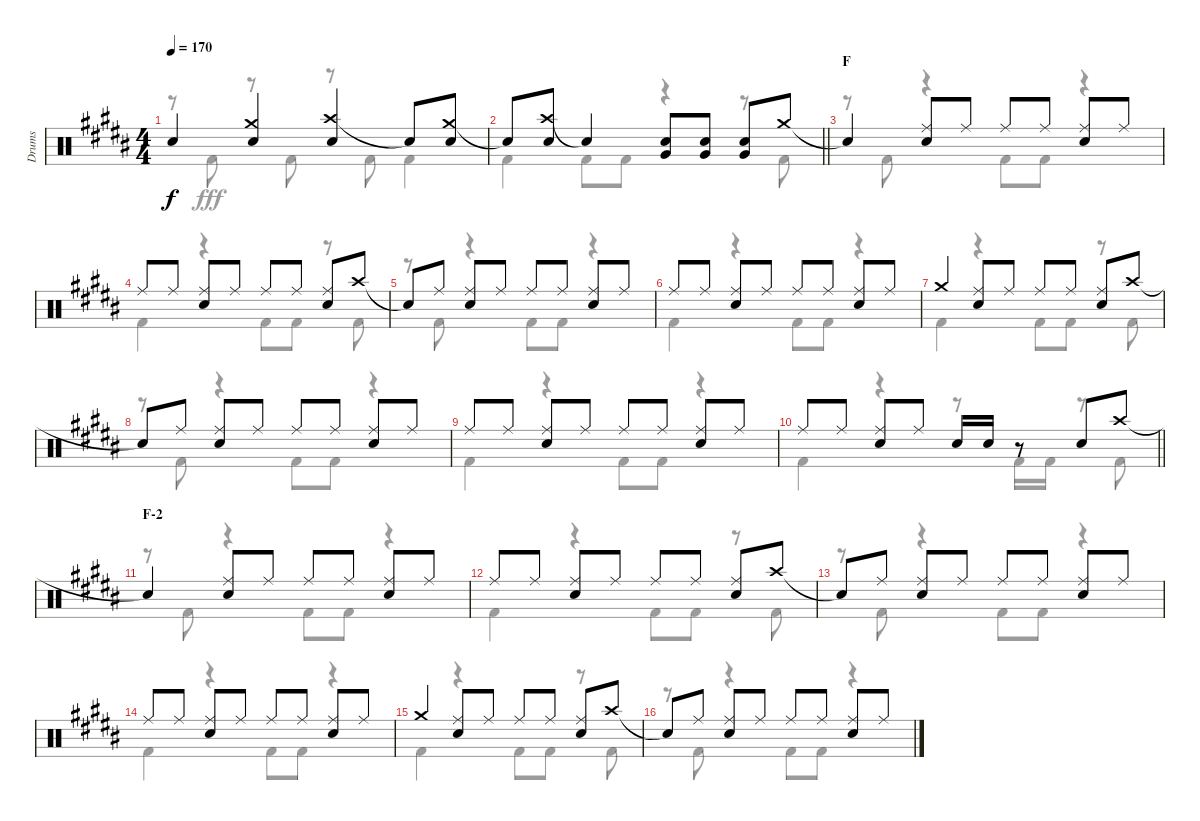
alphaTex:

\track ("Drums" "Drums") {instrument percussion}
\staff {score}
\articulation defaults
\voice
\ts (4 4)
\tempo 170
\clef neutral
\ks b "Snare (hit)"{t}.4{dy f}
("Crash medium (hit)" "Snare (hit) 2").4 ("Crash high (hit)" "Snare (hit) 2").4 "Snare (hit)"{t}.8 ("Crash medium (hit)" "Snare (hit) 2").8 |
\barLineRight lightlight "Snare (hit)"{t}.8
("Crash high (hit)" "Snare (hit) 2").8 "Snare (hit)"{t}.4 ("Snare (hit) 2" "Very Low Tom (hit)").8 ("Snare (hit) 2" "Very Low Tom (hit)").8 ("Snare (hit) 2" "Very Low Tom (hit)").8 "Crash medium (hit)".8 |
\section ("" "F")
"Snare (hit)"{t}.4 ("Ride (middle)" "Snare (hit) 2").8 "Ride (middle)".8 "Ride (middle)".8 "Ride (middle)".8 ("Ride (middle)" "Snare (hit) 2").8 "Ride (middle)".8 |
"Ride (middle)".8 "Ride (middle)".8 ("Ride (middle)" "Snare (hit) 2").8 "Ride (middle)".8 "Ride (middle)".8 "Ride (middle)".8 ("Ride (middle)" "Snare (hit) 2").8 "Crash high (hit)".8 |
"Snare (hit)"{t}.8 "Ride (middle)".8 ("Ride (middle)" "Snare (hit) 2").8 "Ride (middle)".8 "Ride (middle)".8 "Ride (middle)".8 ("Ride (middle)" "Snare (hit) 2").8 "Ride (middle)".8 |
"Ride (middle)".8 "Ride (middle)".8 ("Ride (middle)" "Snare (hit) 2").8 "Ride (middle)".8 "Ride (middle)".8 "Ride (middle)".8 ("Ride (middle)" "Snare (hit) 2").8 "Ride (middle)".8 |
"Crash medium (hit)".4 ("Ride (middle)" "Snare (hit) 2").8 "Ride (middle)".8 "Ride (middle)".8 "Ride (middle)".8 ("Ride (middle)" "Snare (hit) 2").8 "Crash high (hit)".8 |
"Snare (hit)"{t}.8 "Ride (middle)".8 ("Ride (middle)" "Snare (hit) 2").8 "Ride (middle)".8 "Ride (middle)".8 "Ride (middle)".8 ("Ride (middle)" "Snare (hit) 2").8 "Ride (middle)".8 |
"Ride (middle)".8 "Ride (middle)".8 ("Ride (middle)" "Snare (hit) 2").8 "Ride (middle)".8 "Ride (middle)".8 "Ride (middle)".8 ("Ride (middle)" "Snare (hit) 2").8 "Ride (middle)".8 |
\barLineRight lightlight "Ride (middle)".8 "Ride (middle)".8
("Ride (middle)" "Snare (hit) 2").8 "Ride (middle)".8 "Snare (hit) 2".16 "Snare (hit) 2".16 r.8 "Snare (hit) 2".8 "Crash high (hit)".8 |
\section ("" "F-2")
"Snare (hit)"{t}.4 ("Ride (middle)" "Snare (hit) 2").8 "Ride (middle)".8 "Ride (middle)".8 "Ride (middle)".8 ("Ride (middle)" "Snare (hit) 2").8 "Ride (middle)".8 |
"Ride (middle)".8 "Ride (middle)".8 ("Ride (middle)" "Snare (hit) 2").8 "Ride (middle)".8 "Ride (middle)".8 "Ride (middle)".8 ("Ride (middle)" "Snare (hit) 2").8 "Crash high (hit)".8 |
"Snare (hit)"{t}.8 "Ride (middle)".8 ("Ride (middle)" "Snare (hit) 2").8 "Ride (middle)".8 "Ride (middle)".8 "Ride (middle)".8 ("Ride (middle)" "Snare (hit) 2").8 "Ride (middle)".8 |
"Ride (middle)".8 "Ride (middle)".8 ("Ride (middle)" "Snare (hit) 2").8 "Ride (middle)".8 "Ride (middle)".8 "Ride (middle)".8 ("Ride (middle)" "Snare (hit) 2").8 "Ride (middle)".8 |
"Crash medium (hit)".4 ("Ride (middle)" "Snare (hit) 2").8 "Ride (middle)".8 "Ride (middle)".8 "Ride (middle)".8 ("Ride (middle)" "Snare (hit) 2").8 "Crash high (hit)".8 |
"Snare (hit)"{t}.8 "Ride (middle)".8 ("Ride (middle)" "Snare (hit) 2").8 "Ride (middle)".8 "Ride (middle)".8 "Ride (middle)".8 ("Ride (middle)" "Snare (hit) 2").8 "Ride (middle)".8
\voice
\clef neutral
\ottava regular
\simile none
\ks b
r.8{dy fff} "Kick (hit) 2".8 r.8 "Kick (hit) 2".8 r.8 "Kick (hit) 2".8 "Kick (hit) 2".4 |
\barLineRight lightlight "Kick (hit) 2".4 "Kick (hit) 2".8 "Kick (hit) 2".8
r.4 r.8 "Kick (hit) 2".8 |
r.8 "Kick (hit) 2".8 r.4 "Kick (hit) 2".8 "Kick (hit) 2".8 r.4 |
"Kick (hit) 2".4 r.4 "Kick (hit) 2".8 "Kick (hit) 2".8 r.8 "Kick (hit) 2".8 |
r.8 "Kick (hit) 2".8 r.4 "Kick (hit) 2".8 "Kick (hit) 2".8 r.4 |
"Kick (hit) 2".4 r.4 "Kick (hit) 2".8 "Kick (hit) 2".8 r.4 |
"Kick (hit) 2".4 r.4 "Kick (hit) 2".8 "Kick (hit) 2".8 r.8 "Kick (hit) 2".8 |
r.8 "Kick (hit) 2".8 r.4 "Kick (hit) 2".8 "Kick (hit) 2".8 r.4 |
"Kick (hit) 2".4 r.4 "Kick (hit) 2".8 "Kick (hit) 2".8 r.4 |
\barLineRight lightlight "Kick (hit) 2".4
r.4 r.8 "Kick (hit) 2".16 "Kick (hit) 2".16 r.8 "Kick (hit) 2".8 |
r.8 "Kick (hit) 2".8 r.4 "Kick (hit) 2".8 "Kick (hit) 2".8 r.4 |
"Kick (hit) 2".4 r.4 "Kick (hit) 2".8 "Kick (hit) 2".8 r.8 "Kick (hit) 2".8 |
r.8 "Kick (hit) 2".8 r.4 "Kick (hit) 2".8 "Kick (hit) 2".8 r.4 |
"Kick (hit) 2".4 r.4 "Kick (hit) 2".8 "Kick (hit) 2".8 r.4 |
"Kick (hit) 2".4 r.4 "Kick (hit) 2".8 "Kick (hit) 2".8 r.8 "Kick (hit) 2".8 |
r.8 "Kick (hit) 2".8 r.4 "Kick (hit) 2".8 "Kick (hit) 2".8 r.4
